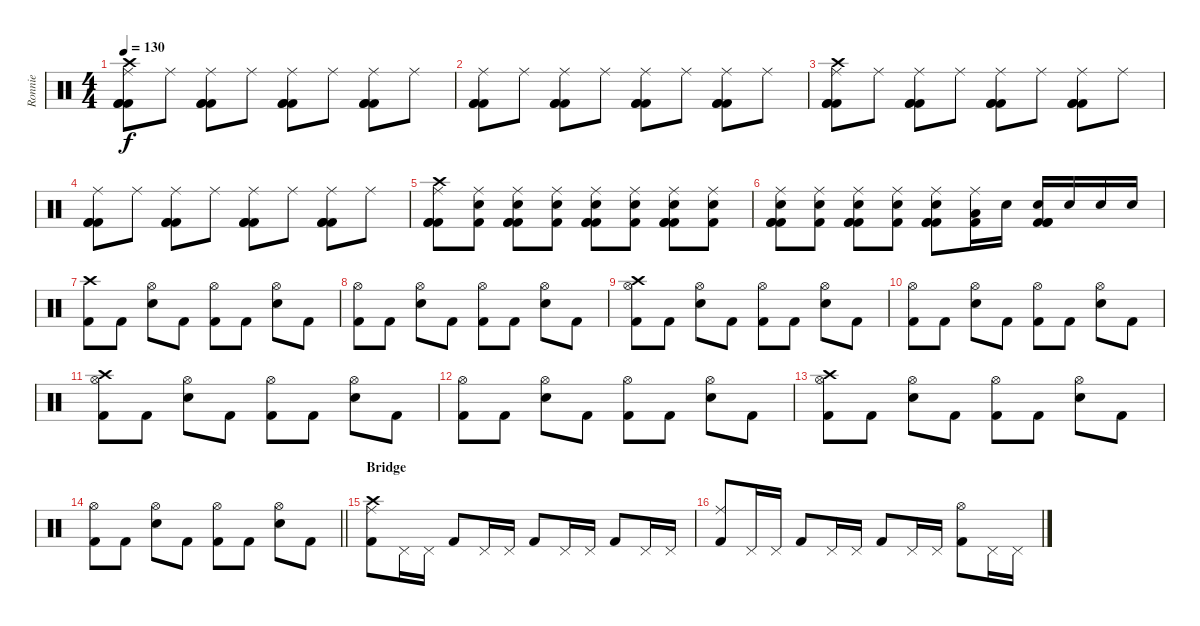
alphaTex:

\track ("Ronnie" "Ronnie") {instrument percussion}
\staff {score}
\articulation defaults
\ts (4 4)
\tempo 130
\clef neutral
\ks c
("Crash high (hit)" "Ride (middle)" "Kick (hit) 2" "Kick (hit) 2" "Kick (hit) 2").8{dy f} "Ride (middle)".8 ("Ride (middle)" "Kick (hit) 2" "Kick (hit) 2" "Kick (hit) 2").8 "Ride (middle)".8 ("Ride (middle)" "Kick (hit) 2" "Kick (hit) 2" "Kick (hit) 2").8 "Ride (middle)".8 ("Ride (middle)" "Kick (hit) 2" "Kick (hit) 2" "Kick (hit) 2").8 "Ride (middle)".8 |
("Ride (middle)" "Kick (hit) 2" "Kick (hit) 2" "Kick (hit) 2").8 "Ride (middle)".8 ("Ride (middle)" "Kick (hit) 2" "Kick (hit) 2" "Kick (hit) 2").8 "Ride (middle)".8 ("Ride (middle)" "Kick (hit) 2" "Kick (hit) 2" "Kick (hit) 2").8 "Ride (middle)".8 ("Ride (middle)" "Kick (hit) 2" "Kick (hit) 2" "Kick (hit) 2").8 "Ride (middle)".8 |
("Crash high (hit)" "Ride (middle)" "Kick (hit) 2" "Kick (hit) 2" "Kick (hit) 2").8 "Ride (middle)".8 ("Ride (middle)" "Kick (hit) 2" "Kick (hit) 2" "Kick (hit) 2").8 "Ride (middle)".8 ("Ride (middle)" "Kick (hit) 2" "Kick (hit) 2" "Kick (hit) 2").8 "Ride (middle)".8 ("Ride (middle)" "Kick (hit) 2" "Kick (hit) 2" "Kick (hit) 2").8 "Ride (middle)".8 |
("Ride (middle)" "Kick (hit) 2" "Kick (hit) 2" "Kick (hit) 2").8 "Ride (middle)".8 ("Ride (middle)" "Kick (hit) 2" "Kick (hit) 2" "Kick (hit) 2").8 "Ride (middle)".8 ("Ride (middle)" "Kick (hit) 2" "Kick (hit) 2" "Kick (hit) 2").8 "Ride (middle)".8 ("Ride (middle)" "Kick (hit) 2" "Kick (hit) 2" "Kick (hit) 2").8 "Ride (middle)".8 |
("Crash high (hit)" "Ride (middle)" "Kick (hit) 2" "Kick (hit) 2" "Kick (hit) 2").8 ("Electric Snare (hit)" "Ride (middle)" "Kick (hit) 2").8 ("Electric Snare (hit)" "Ride (middle)" "Kick (hit) 2" "Kick (hit) 2" "Kick (hit) 2").8 ("Electric Snare (hit)" "Ride (middle)" "Kick (hit) 2").8 ("Electric Snare (hit)" "Ride (middle)" "Kick (hit) 2" "Kick (hit) 2" "Kick (hit) 2").8 ("Electric Snare (hit)" "Ride (middle)" "Kick (hit) 2").8 ("Electric Snare (hit)" "Ride (middle)" "Kick (hit) 2" "Kick (hit) 2" "Kick (hit) 2").8 ("Electric Snare (hit)" "Ride (middle)" "Kick (hit) 2").8 |
("Electric Snare (hit)" "Ride (middle)" "Kick (hit) 2" "Kick (hit) 2" "Kick (hit) 2").8 ("Electric Snare (hit)" "Ride (middle)" "Kick (hit) 2").8 ("Electric Snare (hit)" "Ride (middle)" "Kick (hit) 2" "Kick (hit) 2" "Kick (hit) 2").8 ("Electric Snare (hit)" "Ride (middle)" "Kick (hit) 2").8 ("Electric Snare (hit)" "Ride (middle)" "Kick (hit) 2" "Kick (hit) 2" "Kick (hit) 2").8 ("Ride (middle)" "Kick (hit) 2" "Low Floor Tom (hit)").16 "Electric Snare (hit)".16 ("Electric Snare (hit)" "Kick (hit) 2" "Kick (hit) 2" "Kick (hit) 2").16 "Electric Snare (hit)".16 "Electric Snare (hit)".16 "Electric Snare (hit)".16 |
("Kick (hit) 2" "Crash high (hit)").8 "Kick (hit) 2".8 ("Electric Snare (hit)" "Hi-Hat (open)").8 "Kick (hit) 2".8 ("Kick (hit) 2" "Hi-Hat (open)").8 "Kick (hit) 2".8 ("Electric Snare (hit)" "Hi-Hat (open)").8 "Kick (hit) 2".8 |
("Kick (hit) 2" "Hi-Hat (open)").8 "Kick (hit) 2".8 ("Electric Snare (hit)" "Hi-Hat (open)").8 "Kick (hit) 2".8 ("Kick (hit) 2" "Hi-Hat (open)").8 "Kick (hit) 2".8 ("Electric Snare (hit)" "Hi-Hat (open)").8 "Kick (hit) 2".8 |
("Crash high (hit)" "Kick (hit) 2" "Hi-Hat (open)").8 "Kick (hit) 2".8 ("Electric Snare (hit)" "Hi-Hat (open)").8 "Kick (hit) 2".8 ("Kick (hit) 2" "Hi-Hat (open)").8 "Kick (hit) 2".8 ("Electric Snare (hit)" "Hi-Hat (open)").8 "Kick (hit) 2".8 |
("Kick (hit) 2" "Hi-Hat (open)").8 "Kick (hit) 2".8 ("Electric Snare (hit)" "Hi-Hat (open)").8 "Kick (hit) 2".8 ("Kick (hit) 2" "Hi-Hat (open)").8 "Kick (hit) 2".8 ("Electric Snare (hit)" "Hi-Hat (open)").8 "Kick (hit) 2".8 |
("Crash high (hit)" "Kick (hit) 2" "Hi-Hat (open)").8 "Kick (hit) 2".8 ("Electric Snare (hit)" "Hi-Hat (open)").8 "Kick (hit) 2".8 ("Kick (hit) 2" "Hi-Hat (open)").8 "Kick (hit) 2".8 ("Electric Snare (hit)" "Hi-Hat (open)").8 "Kick (hit) 2".8 |
("Kick (hit) 2" "Hi-Hat (open)").8 "Kick (hit) 2".8 ("Electric Snare (hit)" "Hi-Hat (open)").8 "Kick (hit) 2".8 ("Kick (hit) 2" "Hi-Hat (open)").8 "Kick (hit) 2".8 ("Electric Snare (hit)" "Hi-Hat (open)").8 "Kick (hit) 2".8 |
("Crash high (hit)" "Kick (hit) 2" "Hi-Hat (open)").8 "Kick (hit) 2".8 ("Electric Snare (hit)" "Hi-Hat (open)").8 "Kick (hit) 2".8 ("Kick (hit) 2" "Hi-Hat (open)").8 "Kick (hit) 2".8 ("Electric Snare (hit)" "Hi-Hat (open)").8 "Kick (hit) 2".8 |
\barLineRight lightlight
("Kick (hit) 2" "Hi-Hat (open)").8 "Kick (hit) 2".8 ("Electric Snare (hit)" "Hi-Hat (open)").8 "Kick (hit) 2".8 ("Kick (hit) 2" "Hi-Hat (open)").8 "Kick (hit) 2".8 ("Electric Snare (hit)" "Hi-Hat (open)").8 "Kick (hit) 2".8 |
\section ("" "Bridge")
("Crash high (hit)" "Kick (hit) 2" "Ride (middle)").8 "Pedal Hi-Hat (hit)".16 "Pedal Hi-Hat (hit)".16 "Kick (hit) 2".8 "Pedal Hi-Hat (hit)".16 "Pedal Hi-Hat (hit)".16 "Kick (hit) 2".8 "Pedal Hi-Hat (hit)".16 "Pedal Hi-Hat (hit)".16 "Kick (hit) 2".8 "Pedal Hi-Hat (hit)".16 "Pedal Hi-Hat (hit)".16 |
("Kick (hit) 2" "Ride (middle)").8 "Pedal Hi-Hat (hit)".16 "Pedal Hi-Hat (hit)".16 "Kick (hit) 2".8 "Pedal Hi-Hat (hit)".16 "Pedal Hi-Hat (hit)".16 "Kick (hit) 2".8 "Pedal Hi-Hat (hit)".16 "Pedal Hi-Hat (hit)".16 ("Kick (hit) 2" "Hi-Hat (open)").8 "Pedal Hi-Hat (hit)".16 "Pedal Hi-Hat (hit)".16
